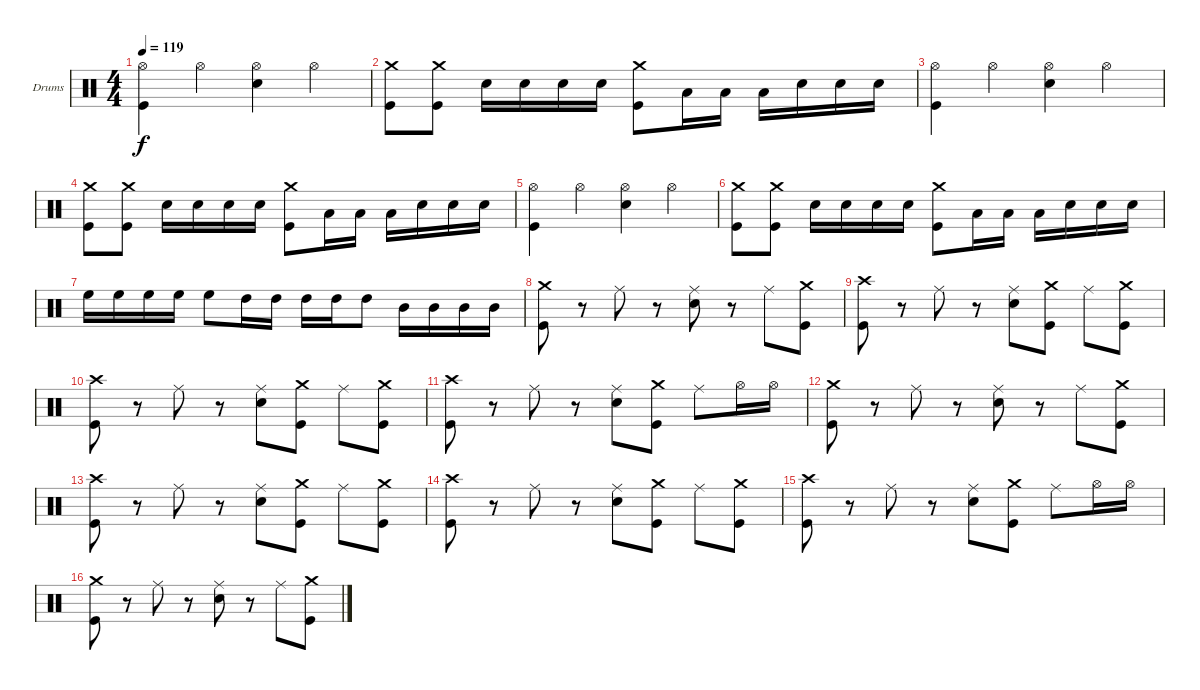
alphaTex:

\bracketExtendMode groupsimilarinstruments
\firstSystemTrackNameOrientation horizontal
\otherSystemsTrackNameOrientation horizontal
\track ("Drumkit" "Drums") {instrument percussion}
\staff {score}
\articulation defaults
\ts (4 4)
\tempo 119
\clef neutral
\ks c
("Hi-Hat (open)" "Kick (hit)").4{dy f} "Hi-Hat (open)".4 ("Hi-Hat (open)" "Snare (hit) 2").4 "Hi-Hat (open)".4 |
("Crash medium (hit)" "Kick (hit)").8 ("Crash medium (hit)" "Kick (hit)").8 "Snare (hit) 2".16 "Snare (hit) 2".16 "Snare (hit) 2".16 "Snare (hit) 2".16 ("Crash medium (hit)" "Kick (hit)").8 "Low Tom (hit)".16 "Low Tom (hit)".16 "Low Tom (hit)".16 "Snare (hit) 2".16 "Snare (hit) 2".16 "Snare (hit) 2".16 |
("Hi-Hat (open)" "Kick (hit)").4 "Hi-Hat (open)".4 ("Hi-Hat (open)" "Snare (hit) 2").4 "Hi-Hat (open)".4 |
("Crash medium (hit)" "Kick (hit)").8 ("Crash medium (hit)" "Kick (hit)").8 "Snare (hit) 2".16 "Snare (hit) 2".16 "Snare (hit) 2".16 "Snare (hit) 2".16 ("Crash medium (hit)" "Kick (hit)").8 "Low Tom (hit)".16 "Low Tom (hit)".16 "Low Tom (hit)".16 "Snare (hit) 2".16 "Snare (hit) 2".16 "Snare (hit) 2".16 |
("Hi-Hat (open)" "Kick (hit)").4 "Hi-Hat (open)".4 ("Hi-Hat (open)" "Snare (hit) 2").4 "Hi-Hat (open)".4 |
("Crash medium (hit)" "Kick (hit)").8 ("Crash medium (hit)" "Kick (hit)").8 "Snare (hit) 2".16 "Snare (hit) 2".16 "Snare (hit) 2".16 "Snare (hit) 2".16 ("Crash medium (hit)" "Kick (hit)").8 "Low Tom (hit)".16 "Low Tom (hit)".16 "Low Tom (hit)".16 "Snare (hit) 2".16 "Snare (hit) 2".16 "Snare (hit) 2".16 |
"High Floor Tom (hit)".16 "High Floor Tom (hit)".16 "High Floor Tom (hit)".16 "High Floor Tom (hit)".16 "High Floor Tom (hit)".8 "High Tom (hit)".16 "High Tom (hit)".16 "High Tom (hit)".16 "High Tom (hit)".16 "High Tom (hit)".8 "Mid Tom (hit)".16 "Mid Tom (hit)".16 "Mid Tom (hit)".16 "Mid Tom (hit)".16 |
("Crash medium (hit)" "Kick (hit)").8 r.8 "Ride (middle)".8 r.8 ("Ride (middle)" "Snare (hit) 2").8 r.8 "Ride (middle)".8 ("Crash medium (hit)" "Kick (hit)").8 |
("Crash high (hit)" "Kick (hit)").8 r.8 "Ride (middle)".8 r.8 ("Ride (middle)" "Snare (hit) 2").8 ("Crash medium (hit)" "Kick (hit)").8 "Ride (middle)".8 ("Crash medium (hit)" "Kick (hit)").8 |
("Crash high (hit)" "Kick (hit)").8 r.8 "Ride (middle)".8 r.8 ("Ride (middle)" "Snare (hit) 2").8 ("Crash medium (hit)" "Kick (hit)").8 "Ride (middle)".8 ("Crash medium (hit)" "Kick (hit)").8 |
("Crash high (hit)" "Kick (hit)").8 r.8 "Ride (middle)".8 r.8 ("Ride (middle)" "Snare (hit) 2").8 ("Crash medium (hit)" "Kick (hit)").8 "Ride (middle)".8 "Hi-Hat (open)".16 "Hi-Hat (open)".16 |
("Crash medium (hit)" "Kick (hit)").8 r.8 "Ride (middle)".8 r.8 ("Ride (middle)" "Snare (hit) 2").8 r.8 "Ride (middle)".8 ("Crash medium (hit)" "Kick (hit)").8 |
("Crash high (hit)" "Kick (hit)").8 r.8 "Ride (middle)".8 r.8 ("Ride (middle)" "Snare (hit) 2").8 ("Crash medium (hit)" "Kick (hit)").8 "Ride (middle)".8 ("Crash medium (hit)" "Kick (hit)").8 |
("Crash high (hit)" "Kick (hit)").8 r.8 "Ride (middle)".8 r.8 ("Ride (middle)" "Snare (hit) 2").8 ("Crash medium (hit)" "Kick (hit)").8 "Ride (middle)".8 ("Crash medium (hit)" "Kick (hit)").8 |
("Crash high (hit)" "Kick (hit)").8 r.8 "Ride (middle)".8 r.8 ("Ride (middle)" "Snare (hit) 2").8 ("Crash medium (hit)" "Kick (hit)").8 "Ride (middle)".8 "Hi-Hat (open)".16 "Hi-Hat (open)".16 |
("Crash medium (hit)" "Kick (hit)").8 r.8 "Ride (middle)".8 r.8 ("Ride (middle)" "Snare (hit) 2").8 r.8 "Ride (middle)".8 ("Crash medium (hit)" "Kick (hit)").8
